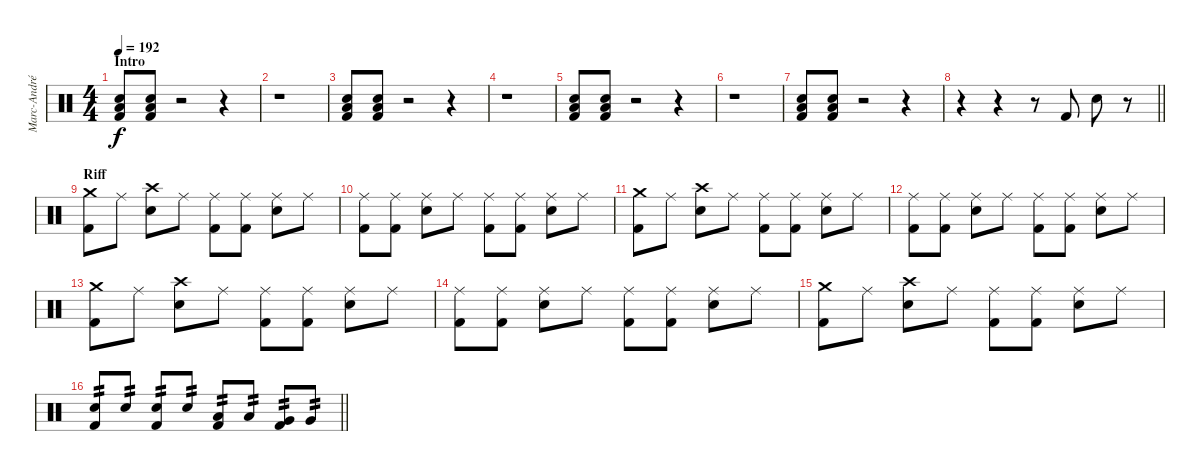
\track ("Marc-André Barabé" "Marc-André") {instrument percussion}
\staff {score}
\articulation defaults
\ts (4 4)
\section ("" "Intro")
\tempo 192
\clef neutral
\ks c
("Electric Snare (hit)" "Low Floor Tom (hit)" "Kick (hit) 2").8{dy f} ("Electric Snare (hit)" "Low Floor Tom (hit)" "Kick (hit) 2").8 r.2 r.4 |
r.1 |
("Electric Snare (hit)" "Low Floor Tom (hit)" "Kick (hit) 2").8 ("Electric Snare (hit)" "Low Floor Tom (hit)" "Kick (hit) 2").8 r.2 r.4 |
r.1 |
("Electric Snare (hit)" "Low Floor Tom (hit)" "Kick (hit) 2").8 ("Electric Snare (hit)" "Low Floor Tom (hit)" "Kick (hit) 2").8 r.2 r.4 |
r.1 |
("Electric Snare (hit)" "Low Floor Tom (hit)" "Kick (hit) 2").8 ("Electric Snare (hit)" "Low Floor Tom (hit)" "Kick (hit) 2").8 r.2 r.4 |
\barLineRight lightlight
r.4 r.4 r.8 "Kick (hit) 2".8 "Electric Snare (hit)".8 r.8 |
\section ("" "Riff")
("Crash medium (hit)" "Kick (hit) 2").8 "Ride (middle)".8 ("Crash high (hit)" "Electric Snare (hit)").8 "Ride (middle)".8 ("Ride (middle)" "Kick (hit) 2").8 ("Ride (middle)" "Kick (hit) 2").8 ("Ride (middle)" "Electric Snare (hit)").8 "Ride (middle)".8 |
("Ride (middle)" "Kick (hit) 2").8 ("Ride (middle)" "Kick (hit) 2").8 ("Ride (middle)" "Electric Snare (hit)").8 "Ride (middle)".8 ("Ride (middle)" "Kick (hit) 2").8 ("Ride (middle)" "Kick (hit) 2").8 ("Ride (middle)" "Electric Snare (hit)").8 "Ride (middle)".8 |
("Crash medium (hit)" "Kick (hit) 2").8 "Ride (middle)".8 ("Crash high (hit)" "Electric Snare (hit)").8 "Ride (middle)".8 ("Ride (middle)" "Kick (hit) 2").8 ("Ride (middle)" "Kick (hit) 2").8 ("Ride (middle)" "Electric Snare (hit)").8 "Ride (middle)".8 |
("Ride (middle)" "Kick (hit) 2").8 ("Ride (middle)" "Kick (hit) 2").8 ("Ride (middle)" "Electric Snare (hit)").8 "Ride (middle)".8 ("Ride (middle)" "Kick (hit) 2").8 ("Ride (middle)" "Kick (hit) 2").8 ("Ride (middle)" "Electric Snare (hit)").8 "Ride (middle)".8 |
("Crash medium (hit)" "Kick (hit) 2").8 "Ride (middle)".8 ("Crash high (hit)" "Electric Snare (hit)").8 "Ride (middle)".8 ("Ride (middle)" "Kick (hit) 2").8 ("Ride (middle)" "Kick (hit) 2").8 ("Ride (middle)" "Electric Snare (hit)").8 "Ride (middle)".8 |
("Ride (middle)" "Kick (hit) 2").8 ("Ride (middle)" "Kick (hit) 2").8 ("Ride (middle)" "Electric Snare (hit)").8 "Ride (middle)".8 ("Ride (middle)" "Kick (hit) 2").8 ("Ride (middle)" "Kick (hit) 2").8 ("Ride (middle)" "Electric Snare (hit)").8 "Ride (middle)".8 |
("Crash medium (hit)" "Kick (hit) 2").8 "Ride (middle)".8 ("Crash high (hit)" "Electric Snare (hit)").8 "Ride (middle)".8 ("Ride (middle)" "Kick (hit) 2").8 ("Ride (middle)" "Kick (hit) 2").8 ("Ride (middle)" "Electric Snare (hit)").8 "Ride (middle)".8 |
\barLineRight lightlight
("Electric Snare (hit)" "Kick (hit) 2").8{tp 2} "Electric Snare (hit)".8{tp 2} ("Electric Snare (hit)" "Kick (hit) 2").8{tp 2} "Electric Snare (hit)".8{tp 2} ("Low Tom (hit)" "Kick (hit) 2").8{tp 2} "Low Tom (hit)".8{tp 2} ("Very Low Tom (hit)" "Kick (hit) 2").8{tp 2} "Very Low Tom (hit)".8{tp 2}
